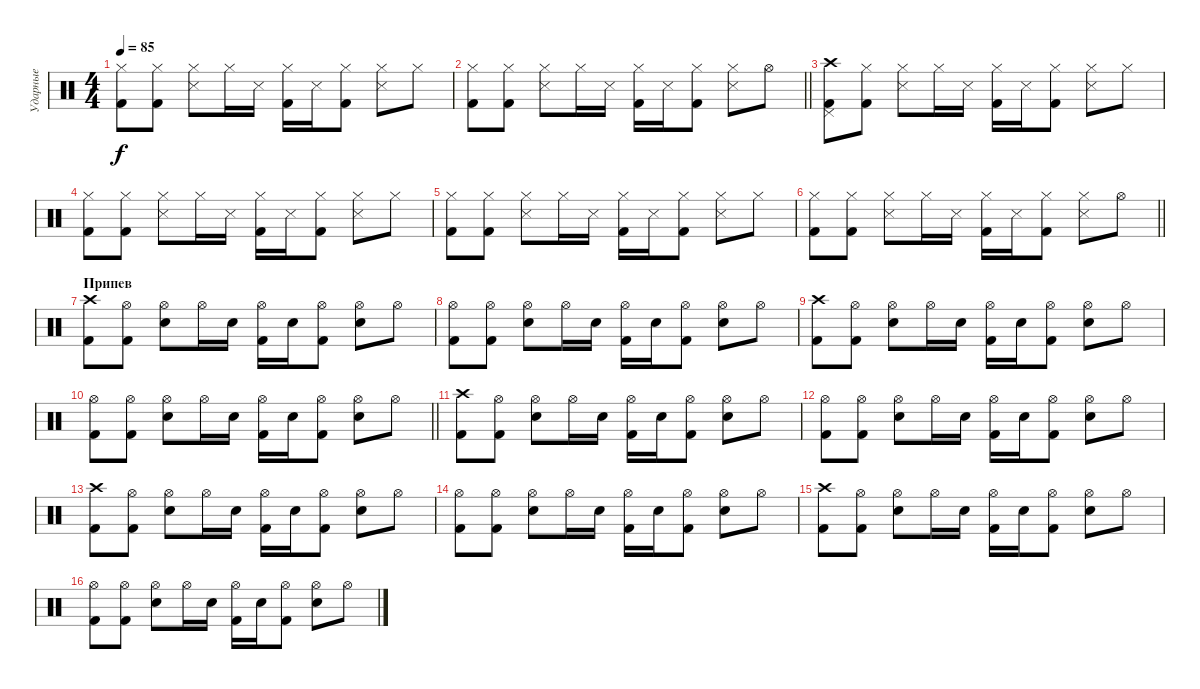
\track ("Ударные" "Ударные") {instrument percussion}
\staff {score}
\articulation defaults
\ts (4 4)
\tempo 85
\clef neutral
\ks c
("Hi-Hat (closed)" "Kick (hit) 2").8{dy f} ("Hi-Hat (closed)" "Kick (hit) 2").8 ("Hi-Hat (closed)" "Snare (side stick) 3").8 "Hi-Hat (closed)".16 "Snare (side stick) 3".16 ("Hi-Hat (closed)" "Kick (hit) 2").16 "Snare (side stick) 3".16 ("Hi-Hat (closed)" "Kick (hit) 2").8 ("Hi-Hat (closed)" "Snare (side stick) 3").8 "Hi-Hat (closed)".8 |
\barLineRight lightlight
("Hi-Hat (closed)" "Kick (hit) 2").8 ("Hi-Hat (closed)" "Kick (hit) 2").8 ("Hi-Hat (closed)" "Snare (side stick) 3").8 "Hi-Hat (closed)".16 "Snare (side stick) 3".16 ("Hi-Hat (closed)" "Kick (hit) 2").16 "Snare (side stick) 3".16 ("Hi-Hat (closed)" "Kick (hit) 2").8 ("Hi-Hat (closed)" "Snare (side stick) 3").8 "Hi-Hat (open)".8 |
("Crash high (hit)" "Pedal Hi-Hat (hit)" "Kick (hit) 2").8 ("Hi-Hat (closed)" "Kick (hit) 2").8 ("Hi-Hat (closed)" "Snare (side stick) 3").8 "Hi-Hat (closed)".16 "Snare (side stick) 3".16 ("Hi-Hat (closed)" "Kick (hit) 2").16 "Snare (side stick) 3".16 ("Hi-Hat (closed)" "Kick (hit) 2").8 ("Hi-Hat (closed)" "Snare (side stick) 3").8 "Hi-Hat (closed)".8 |
("Hi-Hat (closed)" "Kick (hit) 2").8 ("Hi-Hat (closed)" "Kick (hit) 2").8 ("Hi-Hat (closed)" "Snare (side stick) 3").8 "Hi-Hat (closed)".16 "Snare (side stick) 3".16 ("Hi-Hat (closed)" "Kick (hit) 2").16 "Snare (side stick) 3".16 ("Hi-Hat (closed)" "Kick (hit) 2").8 ("Hi-Hat (closed)" "Snare (side stick) 3").8 "Hi-Hat (closed)".8 |
("Hi-Hat (closed)" "Kick (hit) 2").8 ("Hi-Hat (closed)" "Kick (hit) 2").8 ("Hi-Hat (closed)" "Snare (side stick) 3").8 "Hi-Hat (closed)".16 "Snare (side stick) 3".16 ("Hi-Hat (closed)" "Kick (hit) 2").16 "Snare (side stick) 3".16 ("Hi-Hat (closed)" "Kick (hit) 2").8 ("Hi-Hat (closed)" "Snare (side stick) 3").8 "Hi-Hat (closed)".8 |
\barLineRight lightlight
("Hi-Hat (closed)" "Kick (hit) 2").8 ("Hi-Hat (closed)" "Kick (hit) 2").8 ("Hi-Hat (closed)" "Snare (side stick) 3").8 "Hi-Hat (closed)".16 "Snare (side stick) 3".16 ("Hi-Hat (closed)" "Kick (hit) 2").16 "Snare (side stick) 3".16 ("Hi-Hat (closed)" "Kick (hit) 2").8 ("Hi-Hat (closed)" "Snare (side stick) 3").8 "Hi-Hat (open)".8 |
\section ("" "Припев")
("Crash high (hit)" "Kick (hit) 2").8 ("Hi-Hat (open)" "Kick (hit) 2").8 ("Hi-Hat (open)" "Electric Snare (hit)").8 "Hi-Hat (open)".16 "Electric Snare (hit)".16 ("Hi-Hat (open)" "Kick (hit) 2").16 "Electric Snare (hit)".16 ("Hi-Hat (open)" "Kick (hit) 2").8 ("Hi-Hat (open)" "Electric Snare (hit)").8 "Hi-Hat (open)".8 |
("Hi-Hat (open)" "Kick (hit) 2").8 ("Hi-Hat (open)" "Kick (hit) 2").8 ("Hi-Hat (open)" "Electric Snare (hit)").8 "Hi-Hat (open)".16 "Electric Snare (hit)".16 ("Hi-Hat (open)" "Kick (hit) 2").16 "Electric Snare (hit)".16 ("Hi-Hat (open)" "Kick (hit) 2").8 ("Hi-Hat (open)" "Electric Snare (hit)").8 "Hi-Hat (open)".8 |
("Crash high (hit)" "Kick (hit) 2").8 ("Hi-Hat (open)" "Kick (hit) 2").8 ("Hi-Hat (open)" "Electric Snare (hit)").8 "Hi-Hat (open)".16 "Electric Snare (hit)".16 ("Hi-Hat (open)" "Kick (hit) 2").16 "Electric Snare (hit)".16 ("Hi-Hat (open)" "Kick (hit) 2").8 ("Hi-Hat (open)" "Electric Snare (hit)").8 "Hi-Hat (open)".8 |
\barLineRight lightlight
("Hi-Hat (open)" "Kick (hit) 2").8 ("Hi-Hat (open)" "Kick (hit) 2").8 ("Hi-Hat (open)" "Electric Snare (hit)").8 "Hi-Hat (open)".16 "Electric Snare (hit)".16 ("Hi-Hat (open)" "Kick (hit) 2").16 "Electric Snare (hit)".16 ("Hi-Hat (open)" "Kick (hit) 2").8 ("Hi-Hat (open)" "Electric Snare (hit)").8 "Hi-Hat (open)".8 |
("Crash high (hit)" "Kick (hit) 2").8 ("Hi-Hat (open)" "Kick (hit) 2").8 ("Hi-Hat (open)" "Electric Snare (hit)").8 "Hi-Hat (open)".16 "Electric Snare (hit)".16 ("Hi-Hat (open)" "Kick (hit) 2").16 "Electric Snare (hit)".16 ("Hi-Hat (open)" "Kick (hit) 2").8 ("Hi-Hat (open)" "Electric Snare (hit)").8 "Hi-Hat (open)".8 |
("Hi-Hat (open)" "Kick (hit) 2").8 ("Hi-Hat (open)" "Kick (hit) 2").8 ("Hi-Hat (open)" "Electric Snare (hit)").8 "Hi-Hat (open)".16 "Electric Snare (hit)".16 ("Hi-Hat (open)" "Kick (hit) 2").16 "Electric Snare (hit)".16 ("Hi-Hat (open)" "Kick (hit) 2").8 ("Hi-Hat (open)" "Electric Snare (hit)").8 "Hi-Hat (open)".8 |
("Crash high (hit)" "Kick (hit) 2").8 ("Hi-Hat (open)" "Kick (hit) 2").8 ("Hi-Hat (open)" "Electric Snare (hit)").8 "Hi-Hat (open)".16 "Electric Snare (hit)".16 ("Hi-Hat (open)" "Kick (hit) 2").16 "Electric Snare (hit)".16 ("Hi-Hat (open)" "Kick (hit) 2").8 ("Hi-Hat (open)" "Electric Snare (hit)").8 "Hi-Hat (open)".8 |
("Hi-Hat (open)" "Kick (hit) 2").8 ("Hi-Hat (open)" "Kick (hit) 2").8 ("Hi-Hat (open)" "Electric Snare (hit)").8 "Hi-Hat (open)".16 "Electric Snare (hit)".16 ("Hi-Hat (open)" "Kick (hit) 2").16 "Electric Snare (hit)".16 ("Hi-Hat (open)" "Kick (hit) 2").8 ("Hi-Hat (open)" "Electric Snare (hit)").8 "Hi-Hat (open)".8 |
("Crash high (hit)" "Kick (hit) 2").8 ("Hi-Hat (open)" "Kick (hit) 2").8 ("Hi-Hat (open)" "Electric Snare (hit)").8 "Hi-Hat (open)".16 "Electric Snare (hit)".16 ("Hi-Hat (open)" "Kick (hit) 2").16 "Electric Snare (hit)".16 ("Hi-Hat (open)" "Kick (hit) 2").8 ("Hi-Hat (open)" "Electric Snare (hit)").8 "Hi-Hat (open)".8 |
("Hi-Hat (open)" "Kick (hit) 2").8 ("Hi-Hat (open)" "Kick (hit) 2").8 ("Hi-Hat (open)" "Electric Snare (hit)").8 "Hi-Hat (open)".16 "Electric Snare (hit)".16 ("Hi-Hat (open)" "Kick (hit) 2").16 "Electric Snare (hit)".16 ("Hi-Hat (open)" "Kick (hit) 2").8 ("Hi-Hat (open)" "Electric Snare (hit)").8 "Hi-Hat (open)".8
